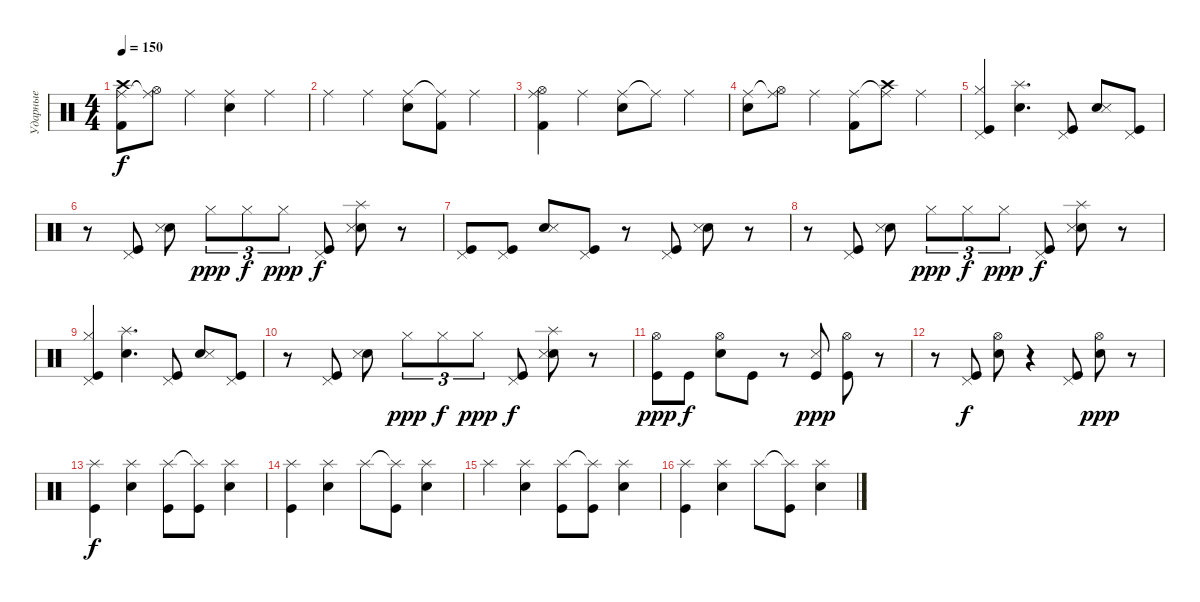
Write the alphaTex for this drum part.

\track ("Ударные" "Ударные") {instrument percussion}
\staff {score}
\articulation defaults
\ts (4 4)
\tempo 150
\clef neutral
\ks c
("Ride (middle)" "Kick (hit) 2" "Crash high (hit)").8{dy f} ("Ride (middle)"{t} "Hi-Hat (open)").8 "Ride (middle)".4 ("Ride (middle)" "Snare (hit) 2").4 "Ride (middle)".4 |
"Ride (middle)".4 "Ride (middle)".4 ("Ride (middle)" "Snare (hit) 2").8 ("Ride (middle)"{t} "Kick (hit) 2").8 "Ride (middle)".4 |
("Ride (middle)" "Kick (hit) 2" "Hi-Hat (open)").4 "Ride (middle)".4 ("Ride (middle)" "Snare (hit) 2").8 "Ride (middle)"{t}.8 "Ride (middle)".4 |
("Ride (middle)" "Snare (hit) 2").8 ("Ride (middle)"{t} "Hi-Hat (open)").8 "Ride (middle)".4 ("Ride (middle)" "Kick (hit) 2").8 ("Ride (middle)"{t} "Crash high (hit)").8 "Ride (middle)".4 |
("Kick (hit)" "Hi-Hat (closed)" "Pedal Hi-Hat (hit)").4 ("Snare (hit) 2" "Splash (hit)").4{d} ("Kick (hit)" "Pedal Hi-Hat (hit)").8 ("Snare (hit) 2" "Snare (side stick) 3").8 ("Kick (hit)" "Pedal Hi-Hat (hit)").8 |
r.8 ("Kick (hit)" "Pedal Hi-Hat (hit)").8 ("Snare (hit) 2" "Snare (side stick) 3").8 "Hi-Hat (closed)".8{tu (3 2) dy ppp} "Hi-Hat (closed)".8{tu (3 2) dy f} "Hi-Hat (closed)".8{tu (3 2) dy ppp} ("Kick (hit)" "Pedal Hi-Hat (hit)").8{dy f} ("Snare (hit) 2" "Snare (side stick) 3" "Splash (hit)").8 r.8 |
("Kick (hit)" "Pedal Hi-Hat (hit)").8 ("Kick (hit)" "Pedal Hi-Hat (hit)").8 ("Snare (hit) 2" "Snare (side stick) 3").8 ("Kick (hit)" "Pedal Hi-Hat (hit)").8 r.8 ("Kick (hit)" "Pedal Hi-Hat (hit)").8 ("Snare (hit) 2" "Snare (side stick) 3").8 r.8 |
r.8 ("Kick (hit)" "Pedal Hi-Hat (hit)").8 ("Snare (hit) 2" "Snare (side stick) 3").8 "Hi-Hat (closed)".8{tu (3 2) dy ppp} "Hi-Hat (closed)".8{tu (3 2) dy f} "Hi-Hat (closed)".8{tu (3 2) dy ppp} ("Kick (hit)" "Pedal Hi-Hat (hit)").8{dy f} ("Snare (hit) 2" "Snare (side stick) 3" "Splash (hit)").8 r.8 |
("Kick (hit)" "Hi-Hat (closed)" "Pedal Hi-Hat (hit)").4 ("Snare (hit) 2" "Splash (hit)").4{d} ("Kick (hit)" "Pedal Hi-Hat (hit)").8 ("Snare (hit) 2" "Snare (side stick) 3").8 ("Kick (hit)" "Pedal Hi-Hat (hit)").8 |
r.8 ("Kick (hit)" "Pedal Hi-Hat (hit)").8 ("Snare (hit) 2" "Snare (side stick) 3").8 "Hi-Hat (closed)".8{tu (3 2) dy ppp} "Hi-Hat (closed)".8{tu (3 2) dy f} "Hi-Hat (closed)".8{tu (3 2) dy ppp} ("Kick (hit)" "Pedal Hi-Hat (hit)").8{dy f} ("Snare (hit) 2" "Snare (side stick) 3" "Splash (hit)").8 r.8 |
("Hi-Hat (open)" "Kick (hit)").8{dy ppp} "Kick (hit)".8{dy f} ("Hi-Hat (open)" "Snare (hit) 2").8 "Kick (hit)".8 r.8 ("Snare (side stick) 3" "Kick (hit)").8{dy ppp} ("Hi-Hat (open)" "Kick (hit)").8 r.8 |
r.8 ("Kick (hit)" "Pedal Hi-Hat (hit)").8{dy f} ("Hi-Hat (open)" "Snare (hit) 2").8 r.4 ("Kick (hit)" "Pedal Hi-Hat (hit)").8 ("Hi-Hat (open)" "Snare (hit) 2").8{dy ppp} r.8 |
("Splash (hit)" "Kick (hit)").4{dy f} ("Splash (hit)" "Snare (hit) 2").4 ("Splash (hit)" "Kick (hit)").8 ("Splash (hit)"{t} "Kick (hit)").8 ("Splash (hit)" "Snare (hit) 2").4 |
("Splash (hit)" "Kick (hit)").4 ("Splash (hit)" "Snare (hit) 2").4 "Splash (hit)".8 ("Splash (hit)"{t} "Kick (hit)").8 ("Splash (hit)" "Snare (hit) 2").4 |
"Splash (hit)".4 ("Splash (hit)" "Snare (hit) 2").4 ("Splash (hit)" "Kick (hit)").8 ("Splash (hit)"{t} "Kick (hit)").8 ("Splash (hit)" "Snare (hit) 2").4 |
("Splash (hit)" "Kick (hit)").4 ("Splash (hit)" "Snare (hit) 2").4 "Splash (hit)".8 ("Splash (hit)"{t} "Kick (hit)").8 ("Splash (hit)" "Snare (hit) 2").4
